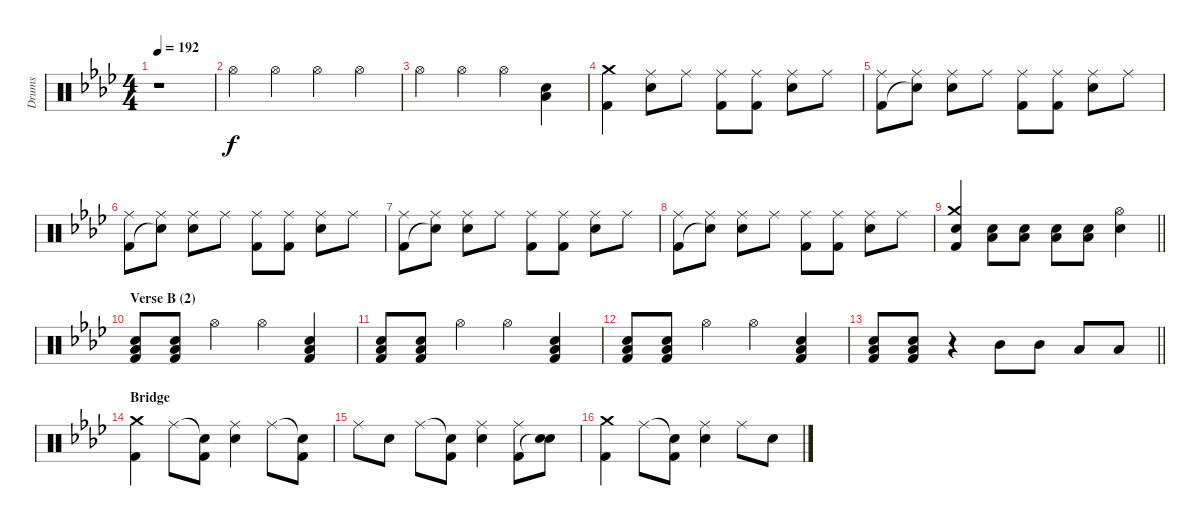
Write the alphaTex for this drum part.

\track ("Drums" "Drums") {instrument percussion}
\staff {score}
\articulation defaults
\ts (4 4)
\tempo 192
\clef neutral
\ks ab
r.1{dy f} |
"Hi-Hat (open)".4 "Hi-Hat (open)".4 "Hi-Hat (open)".4 "Hi-Hat (open)".4 |
"Hi-Hat (open)".4 "Hi-Hat (open)".4 "Hi-Hat (open)".4 ("Electric Snare (hit)" "Low Floor Tom (hit)").4 |
("Crash medium (hit)" "Kick (hit) 2").4 ("Ride (middle)" "Electric Snare (hit)").8 "Ride (middle)".8 ("Ride (middle)" "Kick (hit) 2").8 ("Ride (middle)" "Kick (hit) 2").8 ("Ride (middle)" "Electric Snare (hit)").8 "Ride (middle)".8 |
("Ride (middle)" "Kick (hit) 2").8 ("Ride (middle)" "Snare (hit)"{t}).8 ("Ride (middle)" "Electric Snare (hit)").8 "Ride (middle)".8 ("Ride (middle)" "Kick (hit) 2").8 ("Ride (middle)" "Kick (hit) 2").8 ("Ride (middle)" "Electric Snare (hit)").8 "Ride (middle)".8 |
("Ride (middle)" "Kick (hit) 2").8 ("Ride (middle)" "Snare (hit)"{t}).8 ("Ride (middle)" "Electric Snare (hit)").8 "Ride (middle)".8 ("Ride (middle)" "Kick (hit) 2").8 ("Ride (middle)" "Kick (hit) 2").8 ("Ride (middle)" "Electric Snare (hit)").8 "Ride (middle)".8 |
("Ride (middle)" "Kick (hit) 2").8 ("Ride (middle)" "Snare (hit)"{t}).8 ("Ride (middle)" "Electric Snare (hit)").8 "Ride (middle)".8 ("Ride (middle)" "Kick (hit) 2").8 ("Ride (middle)" "Kick (hit) 2").8 ("Ride (middle)" "Electric Snare (hit)").8 "Ride (middle)".8 |
("Ride (middle)" "Kick (hit) 2").8 ("Ride (middle)" "Snare (hit)"{t}).8 ("Ride (middle)" "Electric Snare (hit)").8 "Ride (middle)".8 ("Ride (middle)" "Kick (hit) 2").8 ("Ride (middle)" "Kick (hit) 2").8 ("Ride (middle)" "Electric Snare (hit)").8 "Ride (middle)".8 |
\barLineRight lightlight
("Crash medium (hit)" "Electric Snare (hit)" "Kick (hit) 2").4 ("Electric Snare (hit)" "Low Floor Tom (hit)").8 ("Electric Snare (hit)" "Low Floor Tom (hit)").8 ("Electric Snare (hit)" "Low Floor Tom (hit)").8 ("Electric Snare (hit)" "Low Floor Tom (hit)").8 ("Hi-Hat (open)" "Electric Snare (hit)").4 |
\section ("" "Verse B (2)")
("Electric Snare (hit)" "Low Floor Tom (hit)" "Kick (hit) 2").8 ("Electric Snare (hit)" "Low Floor Tom (hit)" "Kick (hit) 2").8 "Hi-Hat (open)".4 "Hi-Hat (open)".4 ("Electric Snare (hit)" "Low Floor Tom (hit)" "Kick (hit) 2").4 |
("Electric Snare (hit)" "Low Floor Tom (hit)" "Kick (hit) 2").8 ("Electric Snare (hit)" "Low Floor Tom (hit)" "Kick (hit) 2").8 "Hi-Hat (open)".4 "Hi-Hat (open)".4 ("Electric Snare (hit)" "Low Floor Tom (hit)" "Kick (hit) 2").4 |
("Electric Snare (hit)" "Low Floor Tom (hit)" "Kick (hit) 2").8 ("Electric Snare (hit)" "Low Floor Tom (hit)" "Kick (hit) 2").8 "Hi-Hat (open)".4 "Hi-Hat (open)".4 ("Electric Snare (hit)" "Low Floor Tom (hit)" "Kick (hit) 2").4 |
\barLineRight lightlight
("Electric Snare (hit)" "Low Floor Tom (hit)" "Kick (hit) 2").8 ("Electric Snare (hit)" "Low Floor Tom (hit)" "Kick (hit) 2").8 r.4 "Mid Tom (hit)".8 "Mid Tom (hit)".8 "Low Tom (hit)".8 "Low Floor Tom (hit)".8 |
\section ("" "Bridge")
("Crash medium (hit)" "Kick (hit) 2").4 "Ride (middle)".8 ("Snare (hit)"{t} "Kick (hit) 2").8 ("Ride (middle)" "Electric Snare (hit)").4 "Ride (middle)".8 ("Snare (hit)"{t} "Kick (hit) 2").8 |
"Ride (middle)".8 "Electric Snare (hit)".8 "Ride (middle)".8 ("Snare (hit)"{t} "Kick (hit) 2").8 ("Ride (middle)" "Electric Snare (hit)").4 ("Ride (middle)" "Kick (hit) 2").8 ("Electric Snare (hit)" "Snare (hit)"{t}).8 |
("Crash medium (hit)" "Kick (hit) 2").4 "Ride (middle)".8 ("Snare (hit)"{t} "Kick (hit) 2").8 ("Ride (middle)" "Electric Snare (hit)").4 "Ride (middle)".8 "Electric Snare (hit)".8
